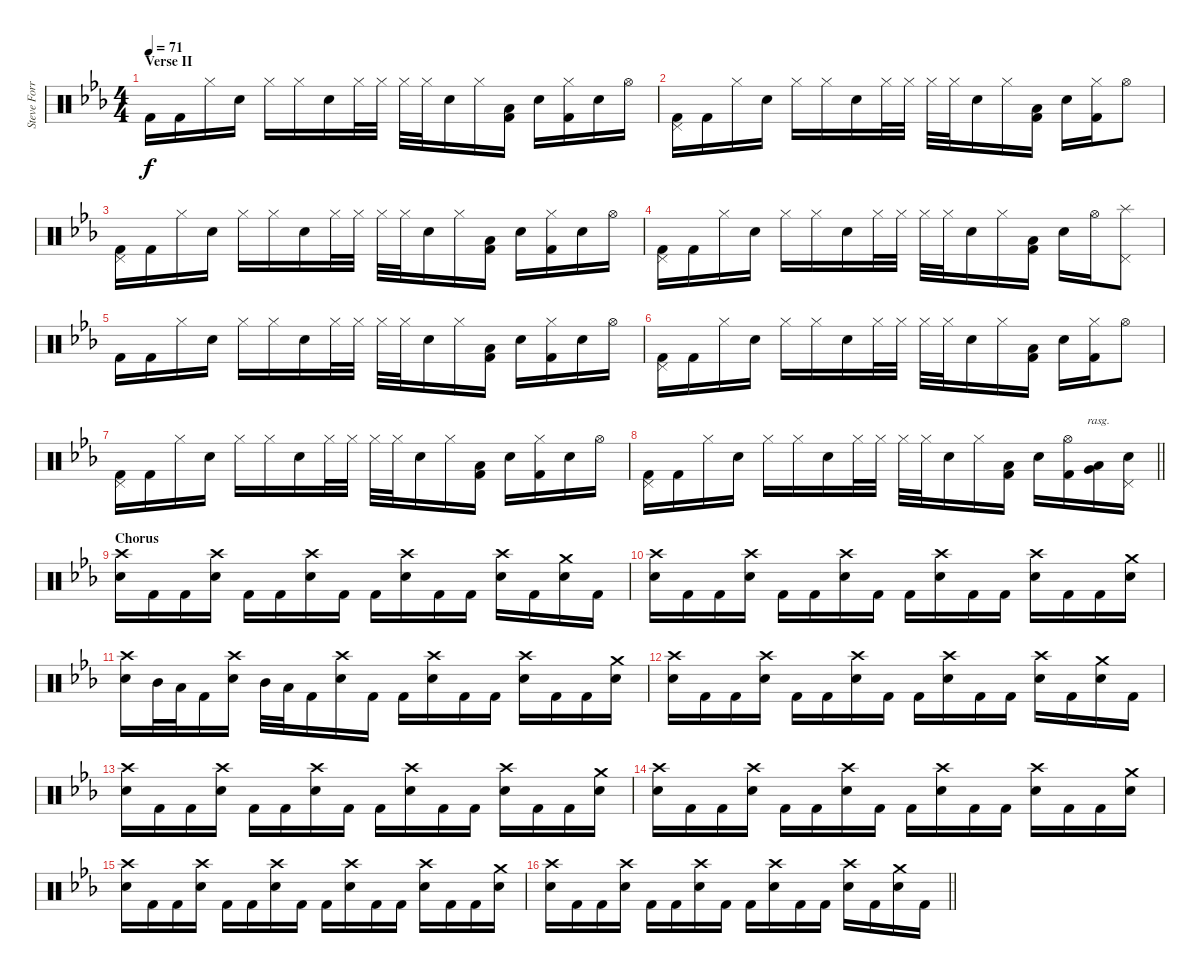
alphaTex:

\track ("Steve Forrest [Drums]" "Steve Forr") {instrument percussion}
\staff {score}
\articulation defaults
\ts (4 4)
\section ("" "Verse II")
\tempo 71
\clef neutral
\ks cminor "Kick (hit) 2".16{dy f} "Kick (hit) 2".16 "Hi-Hat (closed)".16 "Electric Snare (hit)".16 "Hi-Hat (closed)".16 "Hi-Hat (closed)".16 "Electric Snare (hit)".16 "Hi-Hat (closed)".32 "Hi-Hat (closed)".32 "Hi-Hat (closed)".32 "Hi-Hat (closed)".32 "Electric Snare (hit)".16 "Hi-Hat (closed)".16
("Low Tom (hit)" "Kick (hit) 2").16 "Electric Snare (hit)".16 ("Hi-Hat (closed)" "Kick (hit) 2").16 "Electric Snare (hit)".16 "Hi-Hat (open)".16 |
("Pedal Hi-Hat (hit)" "Kick (hit) 2").16 "Kick (hit) 2".16 "Hi-Hat (closed)".16 "Electric Snare (hit)".16 "Hi-Hat (closed)".16 "Hi-Hat (closed)".16 "Electric Snare (hit)".16 "Hi-Hat (closed)".32 "Hi-Hat (closed)".32 "Hi-Hat (closed)".32 "Hi-Hat (closed)".32 "Electric Snare (hit)".16 "Hi-Hat (closed)".16 ("Low Tom (hit)" "Kick (hit) 2").16 "Electric Snare (hit)".16 ("Hi-Hat (closed)" "Kick (hit) 2").16 "Hi-Hat (open)".8 |
("Pedal Hi-Hat (hit)" "Kick (hit) 2").16 "Kick (hit) 2".16 "Hi-Hat (closed)".16 "Electric Snare (hit)".16 "Hi-Hat (closed)".16 "Hi-Hat (closed)".16 "Electric Snare (hit)".16 "Hi-Hat (closed)".32 "Hi-Hat (closed)".32 "Hi-Hat (closed)".32 "Hi-Hat (closed)".32 "Electric Snare (hit)".16 "Hi-Hat (closed)".16 ("Low Tom (hit)" "Kick (hit) 2").16 "Electric Snare (hit)".16 ("Hi-Hat (closed)" "Kick (hit) 2").16 "Electric Snare (hit)".16 "Hi-Hat (open)".16 |
("Pedal Hi-Hat (hit)" "Kick (hit) 2").16 "Kick (hit) 2".16 "Hi-Hat (closed)".16 "Electric Snare (hit)".16 "Hi-Hat (closed)".16 "Hi-Hat (closed)".16 "Electric Snare (hit)".16 "Hi-Hat (closed)".32 "Hi-Hat (closed)".32 "Hi-Hat (closed)".32 "Hi-Hat (closed)".32 "Electric Snare (hit)".16 "Hi-Hat (closed)".16 ("Low Tom (hit)" "Kick (hit) 2").16 "Electric Snare (hit)".16 "Hi-Hat (open)".16 ("Pedal Hi-Hat (hit)" "Splash (hit)").8 |
"Kick (hit) 2".16 "Kick (hit) 2".16 "Hi-Hat (closed)".16 "Electric Snare (hit)".16 "Hi-Hat (closed)".16 "Hi-Hat (closed)".16 "Electric Snare (hit)".16 "Hi-Hat (closed)".32 "Hi-Hat (closed)".32 "Hi-Hat (closed)".32 "Hi-Hat (closed)".32 "Electric Snare (hit)".16 "Hi-Hat (closed)".16 ("Low Tom (hit)" "Kick (hit) 2").16 "Electric Snare (hit)".16 ("Hi-Hat (closed)" "Kick (hit) 2").16 "Electric Snare (hit)".16 "Hi-Hat (open)".16 |
("Pedal Hi-Hat (hit)" "Kick (hit) 2").16 "Kick (hit) 2".16 "Hi-Hat (closed)".16 "Electric Snare (hit)".16 "Hi-Hat (closed)".16 "Hi-Hat (closed)".16 "Electric Snare (hit)".16 "Hi-Hat (closed)".32 "Hi-Hat (closed)".32 "Hi-Hat (closed)".32 "Hi-Hat (closed)".32 "Electric Snare (hit)".16 "Hi-Hat (closed)".16 ("Low Tom (hit)" "Kick (hit) 2").16 "Electric Snare (hit)".16 ("Hi-Hat (closed)" "Kick (hit) 2").16 "Hi-Hat (open)".8 |
("Pedal Hi-Hat (hit)" "Kick (hit) 2").16 "Kick (hit) 2".16 "Hi-Hat (closed)".16 "Electric Snare (hit)".16 "Hi-Hat (closed)".16 "Hi-Hat (closed)".16 "Electric Snare (hit)".16 "Hi-Hat (closed)".32 "Hi-Hat (closed)".32 "Hi-Hat (closed)".32 "Hi-Hat (closed)".32 "Electric Snare (hit)".16 "Hi-Hat (closed)".16 ("Low Tom (hit)" "Kick (hit) 2").16 "Electric Snare (hit)".16 ("Hi-Hat (closed)" "Kick (hit) 2").16 "Electric Snare (hit)".16 "Hi-Hat (open)".16 |
\barLineRight lightlight
("Pedal Hi-Hat (hit)" "Kick (hit) 2").16 "Kick (hit) 2".16 "Hi-Hat (closed)".16 "Electric Snare (hit)".16 "Hi-Hat (closed)".16 "Hi-Hat (closed)".16 "Electric Snare (hit)".16 "Hi-Hat (closed)".32 "Hi-Hat (closed)".32 "Hi-Hat (closed)".32 "Hi-Hat (closed)".32 "Electric Snare (hit)".16 "Hi-Hat (closed)".16 ("Low Tom (hit)" "Kick (hit) 2").16 "Electric Snare (hit)".16 ("Hi-Hat (open)" "Kick (hit) 2").16 ("Low Tom (hit)" "Very Low Tom (hit)").16{bd 120 rasg ii} ("Pedal Hi-Hat (hit)" "Electric Snare (hit)").16 |
\section ("" "Chorus")
("Crash high (hit)" "Electric Snare (hit)").16 "Kick (hit) 2".16 "Kick (hit) 2".16 ("Crash high (hit)" "Electric Snare (hit)").16 "Kick (hit) 2".16 "Kick (hit) 2".16 ("Crash high (hit)" "Electric Snare (hit)").16 "Kick (hit) 2".16 "Kick (hit) 2".16 ("Crash high (hit)" "Electric Snare (hit)").16 "Kick (hit) 2".16 "Kick (hit) 2".16 ("Crash high (hit)" "Electric Snare (hit)").16 "Kick (hit) 2".16 ("Crash medium (hit)" "Electric Snare (hit)").16 "Kick (hit) 2".16 |
("Crash high (hit)" "Electric Snare (hit)").16 "Kick (hit) 2".16 "Kick (hit) 2".16 ("Crash high (hit)" "Electric Snare (hit)").16 "Kick (hit) 2".16 "Kick (hit) 2".16 ("Crash high (hit)" "Electric Snare (hit)").16 "Kick (hit) 2".16 "Kick (hit) 2".16 ("Crash high (hit)" "Electric Snare (hit)").16 "Kick (hit) 2".16 "Kick (hit) 2".16 ("Crash high (hit)" "Electric Snare (hit)").16 "Kick (hit) 2".16 "Kick (hit) 2".16 ("Crash medium (hit)" "Electric Snare (hit)").16 |
("Crash high (hit)" "Electric Snare (hit)").16 "Mid Tom (hit)".32 "Low Tom (hit)".32 "Kick (hit) 2".16 ("Crash high (hit)" "Electric Snare (hit)").16 "Mid Tom (hit)".32 "Low Tom (hit)".32 "Kick (hit) 2".16 ("Crash high (hit)" "Electric Snare (hit)").16 "Kick (hit) 2".16 "Kick (hit) 2".16 ("Crash high (hit)" "Electric Snare (hit)").16 "Kick (hit) 2".16 "Kick (hit) 2".16 ("Crash high (hit)" "Electric Snare (hit)").16 "Kick (hit) 2".16 "Kick (hit) 2".16 ("Crash medium (hit)" "Electric Snare (hit)").16 |
("Crash high (hit)" "Electric Snare (hit)").16 "Kick (hit) 2".16 "Kick (hit) 2".16 ("Crash high (hit)" "Electric Snare (hit)").16 "Kick (hit) 2".16 "Kick (hit) 2".16 ("Crash high (hit)" "Electric Snare (hit)").16 "Kick (hit) 2".16 "Kick (hit) 2".16 ("Crash high (hit)" "Electric Snare (hit)").16 "Kick (hit) 2".16 "Kick (hit) 2".16 ("Crash high (hit)" "Electric Snare (hit)").16 "Kick (hit) 2".16 ("Crash medium (hit)" "Electric Snare (hit)").16 "Kick (hit) 2".16 |
("Crash high (hit)" "Electric Snare (hit)").16 "Kick (hit) 2".16 "Kick (hit) 2".16 ("Crash high (hit)" "Electric Snare (hit)").16 "Kick (hit) 2".16 "Kick (hit) 2".16 ("Crash high (hit)" "Electric Snare (hit)").16 "Kick (hit) 2".16 "Kick (hit) 2".16 ("Crash high (hit)" "Electric Snare (hit)").16 "Kick (hit) 2".16 "Kick (hit) 2".16 ("Crash high (hit)" "Electric Snare (hit)").16 "Kick (hit) 2".16 "Kick (hit) 2".16 ("Crash medium (hit)" "Electric Snare (hit)").16 |
("Crash high (hit)" "Electric Snare (hit)").16 "Kick (hit) 2".16 "Kick (hit) 2".16 ("Crash high (hit)" "Electric Snare (hit)").16 "Kick (hit) 2".16 "Kick (hit) 2".16 ("Crash high (hit)" "Electric Snare (hit)").16 "Kick (hit) 2".16 "Kick (hit) 2".16 ("Crash high (hit)" "Electric Snare (hit)").16 "Kick (hit) 2".16 "Kick (hit) 2".16 ("Crash high (hit)" "Electric Snare (hit)").16 "Kick (hit) 2".16 "Kick (hit) 2".16 ("Crash medium (hit)" "Electric Snare (hit)").16 |
("Crash high (hit)" "Electric Snare (hit)").16 "Kick (hit) 2".16 "Kick (hit) 2".16 ("Crash high (hit)" "Electric Snare (hit)").16 "Kick (hit) 2".16 "Kick (hit) 2".16 ("Crash high (hit)" "Electric Snare (hit)").16 "Kick (hit) 2".16 "Kick (hit) 2".16 ("Crash high (hit)" "Electric Snare (hit)").16 "Kick (hit) 2".16 "Kick (hit) 2".16 ("Crash high (hit)" "Electric Snare (hit)").16 "Kick (hit) 2".16 "Kick (hit) 2".16 ("Crash medium (hit)" "Electric Snare (hit)").16 |
\barLineRight lightlight
("Crash high (hit)" "Electric Snare (hit)").16 "Kick (hit) 2".16 "Kick (hit) 2".16 ("Crash high (hit)" "Electric Snare (hit)").16 "Kick (hit) 2".16 "Kick (hit) 2".16 ("Crash high (hit)" "Electric Snare (hit)").16 "Kick (hit) 2".16 "Kick (hit) 2".16 ("Crash high (hit)" "Electric Snare (hit)").16 "Kick (hit) 2".16 "Kick (hit) 2".16 ("Crash high (hit)" "Electric Snare (hit)").16 "Kick (hit) 2".16 ("Crash medium (hit)" "Electric Snare (hit)").16 "Kick (hit) 2".16
